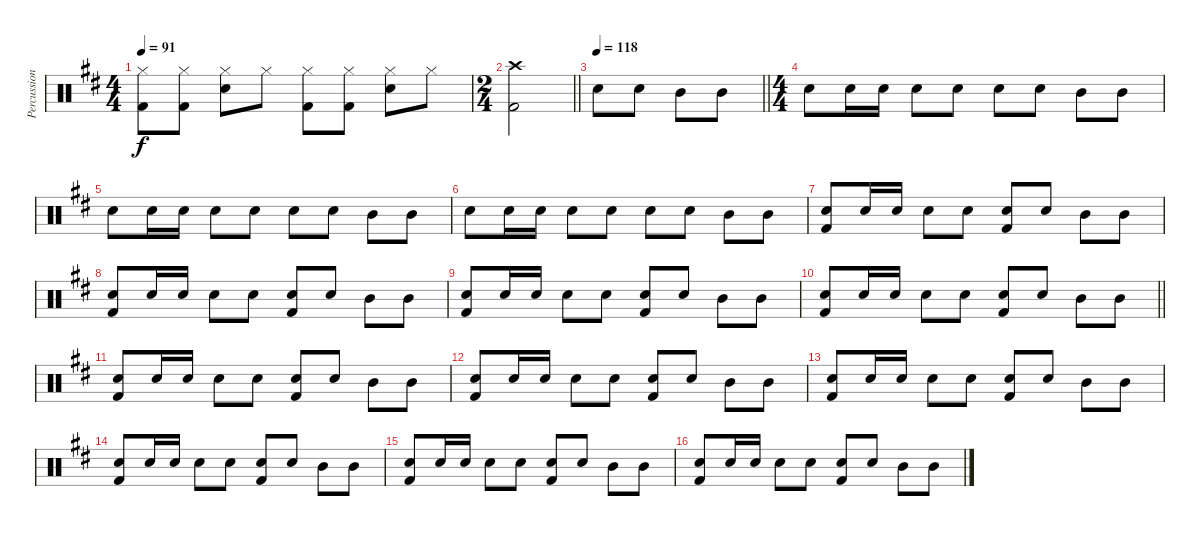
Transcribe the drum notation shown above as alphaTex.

\track ("Percussion" "Percussion") {instrument percussion}
\staff {score}
\articulation defaults
\ts (4 4)
\tempo 91
\clef neutral
\ks d
("Hi-Hat (closed)" "Kick (hit) 2").8{dy f} ("Hi-Hat (closed)" "Kick (hit) 2").8 ("Hi-Hat (closed)" "Snare (hit) 2").8 "Hi-Hat (closed)".8 ("Hi-Hat (closed)" "Kick (hit) 2").8 ("Hi-Hat (closed)" "Kick (hit) 2").8 ("Hi-Hat (closed)" "Snare (hit) 2").8 "Hi-Hat (closed)".8 |
\ts (2 4)
\barLineRight lightlight
("Crash high (hit)" "Kick (hit) 2").2 |
\tempo 118
\barLineRight lightlight "Snare (hit) 2".8 "Snare (hit) 2".8 "Mid Tom (hit)".8 "Mid Tom (hit)".8
|
\ts (4 4)
"Snare (hit) 2".8 "Snare (hit) 2".16 "Snare (hit) 2".16 "Snare (hit) 2".8 "Snare (hit) 2".8 "Snare (hit) 2".8 "Snare (hit) 2".8 "Mid Tom (hit)".8 "Mid Tom (hit)".8 |
"Snare (hit) 2".8 "Snare (hit) 2".16 "Snare (hit) 2".16 "Snare (hit) 2".8 "Snare (hit) 2".8 "Snare (hit) 2".8 "Snare (hit) 2".8 "Mid Tom (hit)".8 "Mid Tom (hit)".8 |
"Snare (hit) 2".8 "Snare (hit) 2".16 "Snare (hit) 2".16 "Snare (hit) 2".8 "Snare (hit) 2".8 "Snare (hit) 2".8 "Snare (hit) 2".8 "Mid Tom (hit)".8 "Mid Tom (hit)".8 |
("Snare (hit) 2" "Kick (hit) 2").8 "Snare (hit) 2".16 "Snare (hit) 2".16 "Snare (hit) 2".8 "Snare (hit) 2".8 ("Snare (hit) 2" "Kick (hit) 2").8 "Snare (hit) 2".8 "Mid Tom (hit)".8 "Mid Tom (hit)".8 |
("Snare (hit) 2" "Kick (hit) 2").8 "Snare (hit) 2".16 "Snare (hit) 2".16 "Snare (hit) 2".8 "Snare (hit) 2".8 ("Snare (hit) 2" "Kick (hit) 2").8 "Snare (hit) 2".8 "Mid Tom (hit)".8 "Mid Tom (hit)".8 |
("Snare (hit) 2" "Kick (hit) 2").8 "Snare (hit) 2".16 "Snare (hit) 2".16 "Snare (hit) 2".8 "Snare (hit) 2".8 ("Snare (hit) 2" "Kick (hit) 2").8 "Snare (hit) 2".8 "Mid Tom (hit)".8 "Mid Tom (hit)".8 |
\barLineRight lightlight
("Snare (hit) 2" "Kick (hit) 2").8 "Snare (hit) 2".16 "Snare (hit) 2".16 "Snare (hit) 2".8 "Snare (hit) 2".8 ("Snare (hit) 2" "Kick (hit) 2").8 "Snare (hit) 2".8 "Mid Tom (hit)".8 "Mid Tom (hit)".8 |
("Snare (hit) 2" "Kick (hit) 2").8 "Snare (hit) 2".16 "Snare (hit) 2".16 "Snare (hit) 2".8 "Snare (hit) 2".8 ("Snare (hit) 2" "Kick (hit) 2").8 "Snare (hit) 2".8 "Mid Tom (hit)".8 "Mid Tom (hit)".8 |
("Snare (hit) 2" "Kick (hit) 2").8 "Snare (hit) 2".16 "Snare (hit) 2".16 "Snare (hit) 2".8 "Snare (hit) 2".8 ("Snare (hit) 2" "Kick (hit) 2").8 "Snare (hit) 2".8 "Mid Tom (hit)".8 "Mid Tom (hit)".8 |
("Snare (hit) 2" "Kick (hit) 2").8 "Snare (hit) 2".16 "Snare (hit) 2".16 "Snare (hit) 2".8 "Snare (hit) 2".8 ("Snare (hit) 2" "Kick (hit) 2").8 "Snare (hit) 2".8 "Mid Tom (hit)".8 "Mid Tom (hit)".8 |
("Snare (hit) 2" "Kick (hit) 2").8 "Snare (hit) 2".16 "Snare (hit) 2".16 "Snare (hit) 2".8 "Snare (hit) 2".8 ("Snare (hit) 2" "Kick (hit) 2").8 "Snare (hit) 2".8 "Mid Tom (hit)".8 "Mid Tom (hit)".8 |
("Snare (hit) 2" "Kick (hit) 2").8 "Snare (hit) 2".16 "Snare (hit) 2".16 "Snare (hit) 2".8 "Snare (hit) 2".8 ("Snare (hit) 2" "Kick (hit) 2").8 "Snare (hit) 2".8 "Mid Tom (hit)".8 "Mid Tom (hit)".8 |
("Snare (hit) 2" "Kick (hit) 2").8 "Snare (hit) 2".16 "Snare (hit) 2".16 "Snare (hit) 2".8 "Snare (hit) 2".8 ("Snare (hit) 2" "Kick (hit) 2").8 "Snare (hit) 2".8 "Mid Tom (hit)".8 "Mid Tom (hit)".8
